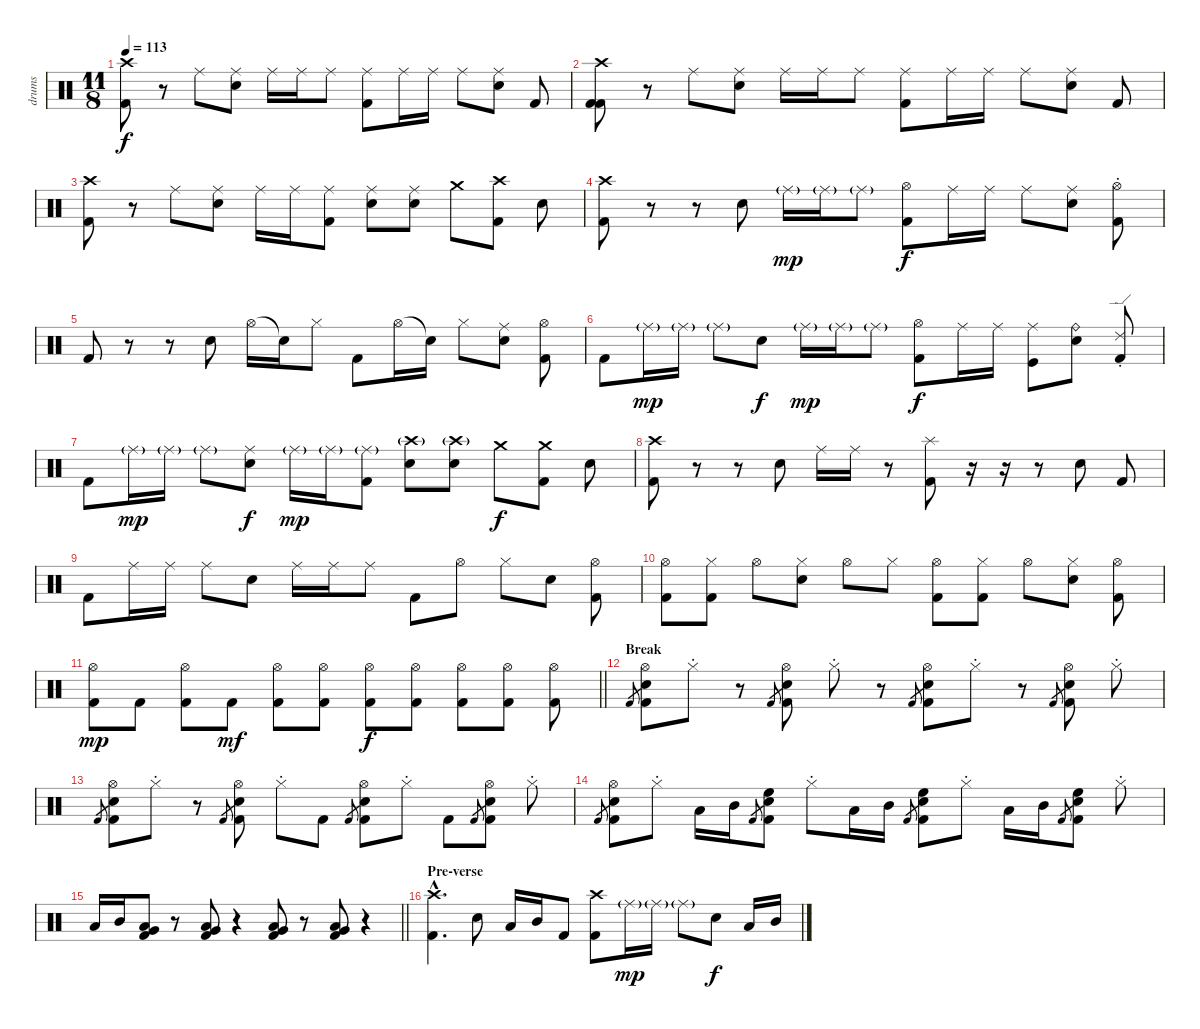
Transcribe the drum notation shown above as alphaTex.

\track ("drums" "drums") {instrument percussion}
\staff {score}
\articulation defaults
\ts (11 8)
\tempo 113
\clef neutral
\ks c
("Crash high (hit)" "Kick (hit) 2").8{dy f} r.8 "Ride (middle)".8 ("Ride (middle)" "Electric Snare (hit)").8 "Ride (middle)".16 "Ride (middle)".16 "Ride (middle)".8 ("Ride (middle)" "Kick (hit) 2").8 "Ride (middle)".16 "Ride (middle)".16 "Ride (middle)".8 ("Ride (middle)" "Electric Snare (hit)").8 "Kick (hit) 2".8 |
("Kick (hit) 2" "Crash high (hit)" "Kick (hit) 2").8 r.8 "Ride (middle)".8 ("Ride (middle)" "Electric Snare (hit)").8 "Ride (middle)".16 "Ride (middle)".16 "Ride (middle)".8 ("Ride (middle)" "Kick (hit) 2").8 "Ride (middle)".16 "Ride (middle)".16 "Ride (middle)".8 ("Ride (middle)" "Electric Snare (hit)").8 "Kick (hit) 2".8 |
("Crash high (hit)" "Kick (hit) 2").8 r.8 "Ride (middle)".8 ("Ride (middle)" "Electric Snare (hit)").8 "Ride (middle)".16 "Ride (middle)".16 ("Ride (middle)" "Kick (hit) 2").8 ("Ride (middle)" "Electric Snare (hit)").8 ("Ride (middle)" "Electric Snare (hit)").8 "Crash medium (hit)".8 ("Crash high (hit)" "Kick (hit) 2").8 "Electric Snare (hit)".8 |
("Crash high (hit)" "Kick (hit) 2").8 r.8 r.8 "Electric Snare (hit)".8 "Ride (middle)"{g}.16{dy mp} "Ride (middle)"{g}.16 "Ride (middle)"{g}.8 ("Hi-Hat (open)" "Kick (hit) 2").8{dy f} "Ride (middle)".16 "Ride (middle)".16 "Ride (middle)".8 ("Ride (middle)" "Electric Snare (hit)").8 ("Hi-Hat (open)"{st} "Kick (hit) 2").8 |
"Kick (hit) 2".8 r.8 r.8 "Electric Snare (hit)".8 "Hi-Hat (open)".16 "Snare (hit)"{t}.16 "Hi-Hat (closed)".8 "Kick (hit) 2".8 "Hi-Hat (open)".16 "Snare (hit)"{t}.16 "Hi-Hat (closed)".8 ("Ride (middle)" "Electric Snare (hit)").8 ("Hi-Hat (open)" "Kick (hit) 2").8 |
"Kick (hit) 2".8 "Ride (middle)"{g}.16{dy mp} "Ride (middle)"{g}.16 "Ride (middle)"{g}.8 "Electric Snare (hit)".8{dy f} "Ride (middle)"{g}.16{dy mp} "Ride (middle)"{g}.16 "Ride (middle)"{g}.8 ("Hi-Hat (open)" "Kick (hit) 2").8{dy f} "Ride (middle)".16 "Ride (middle)".16 ("Ride (middle)" "Kick (hit)").8 ("Ride (bell)" "Electric Snare (hit)").8 ("Ride (edge) 2"{st} "Kick (hit) 2").8 |
"Kick (hit) 2".8 "Ride (middle)"{g}.16{dy mp} "Ride (middle)"{g}.16 "Ride (middle)"{g}.8 ("Ride (middle)" "Electric Snare (hit)").8{dy f} "Ride (middle)"{g}.16{dy mp} "Ride (middle)"{g}.16 ("Ride (middle)"{g} "Kick (hit) 2").8 ("Crash high (hit)"{g} "Electric Snare (hit)").8 ("Crash high (hit)"{g} "Electric Snare (hit)").8 "Crash medium (hit)".8{dy f} ("Crash medium (hit)" "Kick (hit) 2").8 "Electric Snare (hit)".8 |
("Crash high (hit)" "Kick (hit) 2").8 r.8 r.8 "Electric Snare (hit)".8 "Ride (middle)".16 "Ride (middle)".16 r.8 ("Splash (hit)" "Kick (hit) 2").8 r.16 r.16 r.8 "Electric Snare (hit)".8 "Kick (hit) 2".8 |
"Kick (hit) 2".8 "Ride (middle)".16 "Ride (middle)".16 "Ride (middle)".8 "Electric Snare (hit)".8 "Ride (middle)".16 "Ride (middle)".16 "Ride (middle)".8 "Kick (hit) 2".8 "Hi-Hat (open)".8 "Hi-Hat (closed)".8 "Electric Snare (hit)".8 ("Hi-Hat (open)" "Kick (hit) 2").8 |
("Hi-Hat (open)" "Kick (hit) 2").8 ("Hi-Hat (closed)" "Kick (hit) 2").8 "Hi-Hat (open)".8 ("Hi-Hat (closed)" "Electric Snare (hit)").8 "Hi-Hat (open)".8 "Hi-Hat (closed)".8 ("Hi-Hat (open)" "Kick (hit) 2").8 ("Hi-Hat (closed)" "Kick (hit) 2").8 "Hi-Hat (open)".8 ("Hi-Hat (closed)" "Electric Snare (hit)").8 ("Hi-Hat (open)" "Kick (hit) 2").8 |
\barLineRight lightlight
("Hi-Hat (open)" "Kick (hit) 2").8{dy mp} "Kick (hit) 2".8 ("Hi-Hat (open)" "Kick (hit) 2").8 "Kick (hit) 2".8{dy mf} ("Hi-Hat (open)" "Kick (hit) 2").8 ("Hi-Hat (open)" "Kick (hit) 2").8 ("Hi-Hat (open)" "Kick (hit) 2").8{dy f} ("Hi-Hat (open)" "Kick (hit) 2").8 ("Hi-Hat (open)" "Kick (hit) 2").8 ("Hi-Hat (open)" "Kick (hit) 2").8 ("Hi-Hat (open)" "Kick (hit) 2").8 |
\section ("" "Break")
"Kick (hit) 2"{h}.8{gr} ("Hi-Hat (open)" "Electric Snare (hit)" "Kick (hit) 2").8 "Hi-Hat (closed)"{st}.8 r.8 "Kick (hit) 2"{h}.8{gr} ("Hi-Hat (open)" "Electric Snare (hit)" "Kick (hit) 2").8 "Hi-Hat (closed)"{st}.8 r.8 "Kick (hit) 2"{h}.8{gr} ("Hi-Hat (open)" "Electric Snare (hit)" "Kick (hit) 2").8 "Hi-Hat (closed)"{st}.8 r.8 "Kick (hit) 2"{h}.8{gr} ("Hi-Hat (open)" "Electric Snare (hit)" "Kick (hit) 2").8 "Hi-Hat (closed)"{st}.8 |
"Kick (hit) 2"{h}.8{gr} ("Hi-Hat (open)" "Electric Snare (hit)" "Kick (hit) 2").8 "Hi-Hat (closed)"{st}.8 r.8 "Kick (hit) 2"{h}.8{gr} ("Hi-Hat (open)" "Electric Snare (hit)" "Kick (hit) 2").8 "Hi-Hat (closed)"{st}.8 "Kick (hit) 2".8 "Kick (hit) 2"{h}.8{gr} ("Hi-Hat (open)" "Electric Snare (hit)" "Kick (hit) 2").8 "Hi-Hat (closed)"{st}.8 "Kick (hit) 2".8 "Kick (hit) 2"{h}.8{gr} ("Hi-Hat (open)" "Electric Snare (hit)" "Kick (hit) 2").8 "Hi-Hat (closed)"{st}.8 |
"Kick (hit) 2"{h}.8{gr} ("Hi-Hat (open)" "Electric Snare (hit)" "Kick (hit) 2").8 "Hi-Hat (closed)"{st}.8 "Low Tom (hit)".16 "Mid Tom (hit)".16 "Kick (hit) 2"{h}.8{gr} ("Electric Snare (hit)" "Kick (hit) 2" "High Floor Tom (hit)").8 "Hi-Hat (closed)"{st}.8 "Low Tom (hit)".16 "Mid Tom (hit)".16 "Kick (hit) 2"{h}.8{gr} ("Electric Snare (hit)" "Kick (hit) 2" "High Floor Tom (hit)").8 "Hi-Hat (closed)"{st}.8 "Low Tom (hit)".16 "Mid Tom (hit)".16 "Kick (hit) 2"{h}.8{gr} ("Electric Snare (hit)" "Kick (hit) 2" "High Floor Tom (hit)").8 "Hi-Hat (closed)"{st}.8 |
\barLineRight lightlight "Low Tom (hit)".16 "Mid Tom (hit)".16
("Very Low Tom (hit)" "Low Floor Tom (hit)" "Kick (hit) 2").8 r.8 ("Very Low Tom (hit)" "Low Floor Tom (hit)" "Kick (hit) 2").8 r.4 ("Very Low Tom (hit)" "Low Floor Tom (hit)" "Kick (hit) 2").8 r.8 ("Very Low Tom (hit)" "Low Floor Tom (hit)" "Kick (hit) 2").8 r.4 |
\section ("" "Pre-verse")
("Crash high (hit)"{hac} "Kick (hit) 2"{hac}).4{d} "Electric Snare (hit)".8 "Low Tom (hit)".16 "Mid Tom (hit)".16 "Kick (hit) 2".8 ("Crash high (hit)" "Kick (hit) 2").8 "Ride (middle)"{g}.16{dy mp} "Ride (middle)"{g}.16 "Ride (middle)"{g}.8 "Electric Snare (hit)".8{dy f} "Low Tom (hit)".16 "Mid Tom (hit)".16
